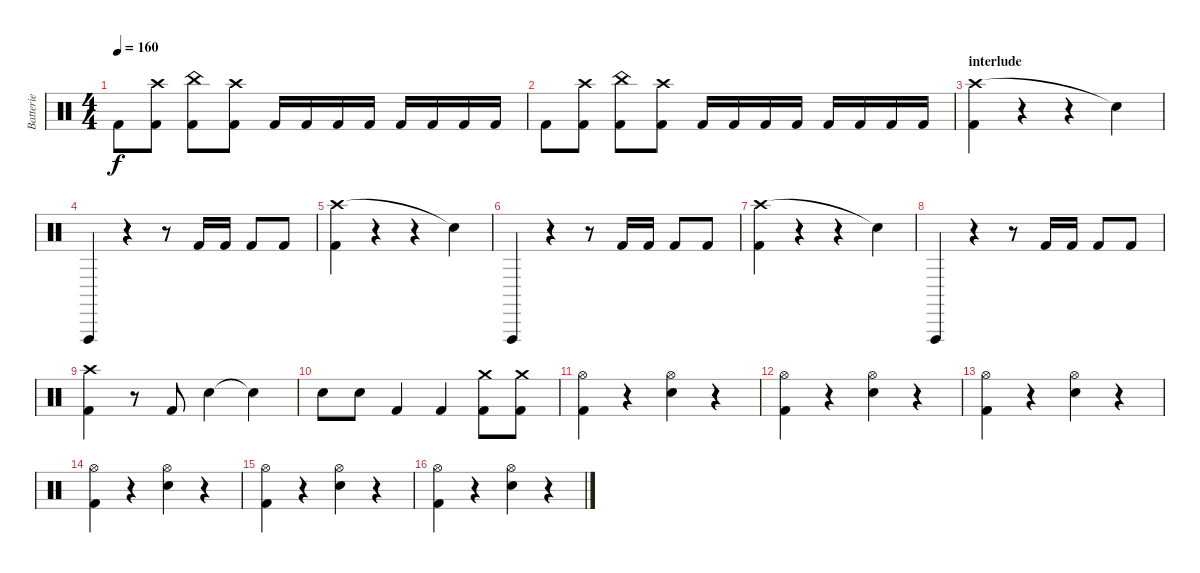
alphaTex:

\track ("Batterie" "Batterie") {instrument percussion}
\staff {score}
\articulation defaults
\ts (4 4)
\tempo 160
\clef neutral
\ks c "Kick (hit) 2".8{dy f}
("Crash high (hit)" "Kick (hit) 2").8 ("China (hit)" "Kick (hit) 2").8 ("Crash high (hit)" "Kick (hit) 2").8 "Kick (hit) 2".16 "Kick (hit) 2".16 "Kick (hit) 2".16 "Kick (hit) 2".16 "Kick (hit) 2".16 "Kick (hit) 2".16 "Kick (hit) 2".16 "Kick (hit) 2".16 |
"Kick (hit) 2".8 ("Crash high (hit)" "Kick (hit) 2").8 ("China (hit)" "Kick (hit) 2").8 ("Crash high (hit)" "Kick (hit) 2").8 "Kick (hit) 2".16 "Kick (hit) 2".16 "Kick (hit) 2".16 "Kick (hit) 2".16 "Kick (hit) 2".16 "Kick (hit) 2".16 "Kick (hit) 2".16 "Kick (hit) 2".16 |
\section ("" "interlude")
("Crash high (hit)" "Kick (hit) 2").4 r.4 r.4 "Snare (hit)"{t}.4 |
"Vibraslap (hit)".4 r.4 r.8 "Kick (hit) 2".16 "Kick (hit) 2".16 "Kick (hit) 2".8 "Kick (hit) 2".8 |
("Crash high (hit)" "Kick (hit) 2").4 r.4 r.4 "Snare (hit)"{t}.4 |
"Vibraslap (hit)".4 r.4 r.8 "Kick (hit) 2".16 "Kick (hit) 2".16 "Kick (hit) 2".8 "Kick (hit) 2".8 |
("Crash high (hit)" "Kick (hit) 2").4 r.4 r.4 "Snare (hit)"{t}.4 |
"Vibraslap (hit)".4 r.4 r.8 "Kick (hit) 2".16 "Kick (hit) 2".16 "Kick (hit) 2".8 "Kick (hit) 2".8 |
("Crash high (hit)" "Kick (hit) 2").4 r.8 "Kick (hit) 2".8 "Electric Snare (hit)".4 "Snare (hit)"{t}.4 |
"Electric Snare (hit)".8 "Electric Snare (hit)".8 "Kick (hit) 2".4 "Kick (hit) 2".4 ("Crash medium (hit)" "Kick (hit) 2").8 ("Crash medium (hit)" "Kick (hit) 2").8 |
("Hi-Hat (open)" "Kick (hit) 2").4 r.4 ("Hi-Hat (open)" "Electric Snare (hit)").4 r.4 |
("Hi-Hat (open)" "Kick (hit) 2").4 r.4 ("Hi-Hat (open)" "Electric Snare (hit)").4 r.4 |
("Hi-Hat (open)" "Kick (hit) 2").4 r.4 ("Hi-Hat (open)" "Electric Snare (hit)").4 r.4 |
("Hi-Hat (open)" "Kick (hit) 2").4 r.4 ("Hi-Hat (open)" "Electric Snare (hit)").4 r.4 |
("Hi-Hat (open)" "Kick (hit) 2").4 r.4 ("Hi-Hat (open)" "Electric Snare (hit)").4 r.4 |
("Hi-Hat (open)" "Kick (hit) 2").4 r.4 ("Hi-Hat (open)" "Electric Snare (hit)").4 r.4
